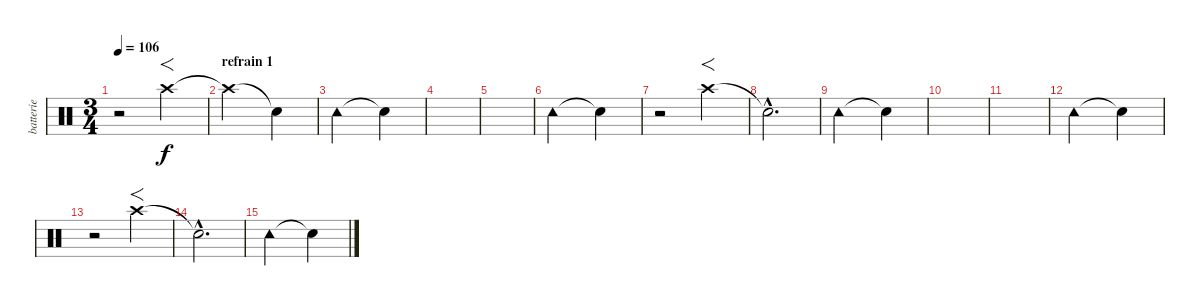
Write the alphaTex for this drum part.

\track ("batterie" "batterie") {instrument percussion}
\staff {score}
\articulation defaults
\ts (3 4)
\tempo 106
\clef neutral
\ks c
r.2{dy f} "Crash high (hit)".4{f} |
\section ("" "refrain 1")
"Crash high (hit)"{t}.2 "Snare (hit)"{t}.4 |
"Tambourine (hit)".2 "Snare (hit)"{t}.4 |
|
|
"Tambourine (hit)".2 "Snare (hit)"{t}.4 |
r.2 "Crash high (hit)".4{f} |
"Snare (hit)"{hac t}.2{d} |
"Tambourine (hit)".2 "Snare (hit)"{t}.4 |
|
|
"Tambourine (hit)".2 "Snare (hit)"{t}.4 |
r.2 "Crash high (hit)".4{f} |
"Snare (hit)"{hac t}.2{d} |
"Tambourine (hit)".2 "Snare (hit)"{t}.4
